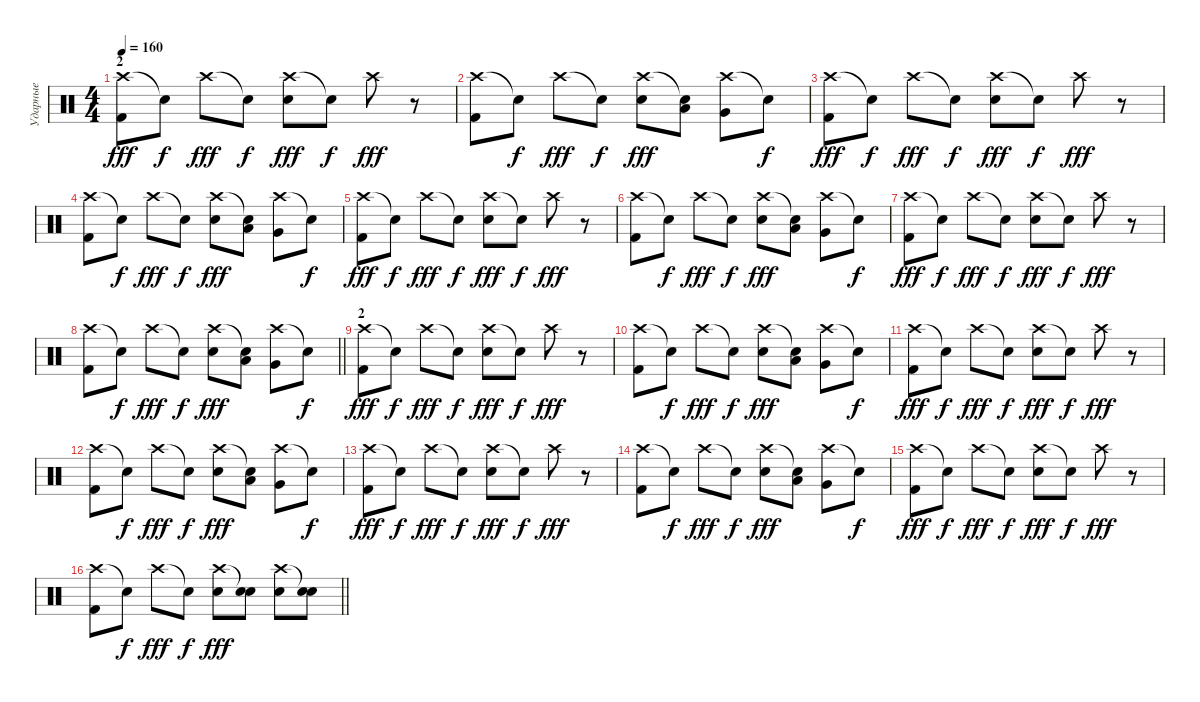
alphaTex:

\track ("Ударные" "Ударные") {instrument percussion}
\staff {score}
\articulation defaults
\ts (4 4)
\section ("" "2")
\tempo 160
\clef neutral
\ks c
("Crash high (hit)" "Kick (hit) 2").8{dy fff} "Snare (hit)"{t}.8{dy f} "Crash high (hit)".8{dy fff} "Snare (hit)"{t}.8{dy f} ("Crash high (hit)" "Electric Snare (hit)").8{dy fff} "Snare (hit)"{t}.8{dy f} "Crash high (hit)".8{dy fff} r.8 |
("Crash high (hit)" "Kick (hit) 2").8 "Snare (hit)"{t}.8{dy f} "Crash high (hit)".8{dy fff} "Snare (hit)"{t}.8{dy f} ("Crash high (hit)" "Electric Snare (hit)").8{dy fff} ("Snare (hit)"{t} "Low Tom (hit)").8 ("Crash high (hit)" "Very Low Tom (hit)").8 "Snare (hit)"{t}.8{dy f} |
("Crash high (hit)" "Kick (hit) 2").8{dy fff} "Snare (hit)"{t}.8{dy f} "Crash high (hit)".8{dy fff} "Snare (hit)"{t}.8{dy f} ("Crash high (hit)" "Electric Snare (hit)").8{dy fff} "Snare (hit)"{t}.8{dy f} "Crash high (hit)".8{dy fff} r.8 |
("Crash high (hit)" "Kick (hit) 2").8 "Snare (hit)"{t}.8{dy f} "Crash high (hit)".8{dy fff} "Snare (hit)"{t}.8{dy f} ("Crash high (hit)" "Electric Snare (hit)").8{dy fff} ("Snare (hit)"{t} "Low Tom (hit)").8 ("Crash high (hit)" "Very Low Tom (hit)").8 "Snare (hit)"{t}.8{dy f} |
("Crash high (hit)" "Kick (hit) 2").8{dy fff} "Snare (hit)"{t}.8{dy f} "Crash high (hit)".8{dy fff} "Snare (hit)"{t}.8{dy f} ("Crash high (hit)" "Electric Snare (hit)").8{dy fff} "Snare (hit)"{t}.8{dy f} "Crash high (hit)".8{dy fff} r.8 |
("Crash high (hit)" "Kick (hit) 2").8 "Snare (hit)"{t}.8{dy f} "Crash high (hit)".8{dy fff} "Snare (hit)"{t}.8{dy f} ("Crash high (hit)" "Electric Snare (hit)").8{dy fff} ("Snare (hit)"{t} "Low Tom (hit)").8 ("Crash high (hit)" "Very Low Tom (hit)").8 "Snare (hit)"{t}.8{dy f} |
("Crash high (hit)" "Kick (hit) 2").8{dy fff} "Snare (hit)"{t}.8{dy f} "Crash high (hit)".8{dy fff} "Snare (hit)"{t}.8{dy f} ("Crash high (hit)" "Electric Snare (hit)").8{dy fff} "Snare (hit)"{t}.8{dy f} "Crash high (hit)".8{dy fff} r.8 |
\barLineRight lightlight
("Crash high (hit)" "Kick (hit) 2").8 "Snare (hit)"{t}.8{dy f} "Crash high (hit)".8{dy fff} "Snare (hit)"{t}.8{dy f} ("Crash high (hit)" "Electric Snare (hit)").8{dy fff} ("Snare (hit)"{t} "Low Tom (hit)").8 ("Crash high (hit)" "Very Low Tom (hit)").8 "Snare (hit)"{t}.8{dy f} |
\section ("" "2")
("Crash high (hit)" "Kick (hit) 2").8{dy fff} "Snare (hit)"{t}.8{dy f} "Crash high (hit)".8{dy fff} "Snare (hit)"{t}.8{dy f} ("Crash high (hit)" "Electric Snare (hit)").8{dy fff} "Snare (hit)"{t}.8{dy f} "Crash high (hit)".8{dy fff} r.8 |
("Crash high (hit)" "Kick (hit) 2").8 "Snare (hit)"{t}.8{dy f} "Crash high (hit)".8{dy fff} "Snare (hit)"{t}.8{dy f} ("Crash high (hit)" "Electric Snare (hit)").8{dy fff} ("Snare (hit)"{t} "Low Tom (hit)").8 ("Crash high (hit)" "Very Low Tom (hit)").8 "Snare (hit)"{t}.8{dy f} |
("Crash high (hit)" "Kick (hit) 2").8{dy fff} "Snare (hit)"{t}.8{dy f} "Crash high (hit)".8{dy fff} "Snare (hit)"{t}.8{dy f} ("Crash high (hit)" "Electric Snare (hit)").8{dy fff} "Snare (hit)"{t}.8{dy f} "Crash high (hit)".8{dy fff} r.8 |
("Crash high (hit)" "Kick (hit) 2").8 "Snare (hit)"{t}.8{dy f} "Crash high (hit)".8{dy fff} "Snare (hit)"{t}.8{dy f} ("Crash high (hit)" "Electric Snare (hit)").8{dy fff} ("Snare (hit)"{t} "Low Tom (hit)").8 ("Crash high (hit)" "Very Low Tom (hit)").8 "Snare (hit)"{t}.8{dy f} |
("Crash high (hit)" "Kick (hit) 2").8{dy fff} "Snare (hit)"{t}.8{dy f} "Crash high (hit)".8{dy fff} "Snare (hit)"{t}.8{dy f} ("Crash high (hit)" "Electric Snare (hit)").8{dy fff} "Snare (hit)"{t}.8{dy f} "Crash high (hit)".8{dy fff} r.8 |
("Crash high (hit)" "Kick (hit) 2").8 "Snare (hit)"{t}.8{dy f} "Crash high (hit)".8{dy fff} "Snare (hit)"{t}.8{dy f} ("Crash high (hit)" "Electric Snare (hit)").8{dy fff} ("Snare (hit)"{t} "Low Tom (hit)").8 ("Crash high (hit)" "Very Low Tom (hit)").8 "Snare (hit)"{t}.8{dy f} |
("Crash high (hit)" "Kick (hit) 2").8{dy fff} "Snare (hit)"{t}.8{dy f} "Crash high (hit)".8{dy fff} "Snare (hit)"{t}.8{dy f} ("Crash high (hit)" "Electric Snare (hit)").8{dy fff} "Snare (hit)"{t}.8{dy f} "Crash high (hit)".8{dy fff} r.8 |
\barLineRight lightlight
("Crash high (hit)" "Kick (hit) 2").8 "Snare (hit)"{t}.8{dy f} "Crash high (hit)".8{dy fff} "Snare (hit)"{t}.8{dy f} ("Crash high (hit)" "Electric Snare (hit)").8{dy fff} ("Snare (hit)"{t} "Electric Snare (hit)").8 ("Crash high (hit)" "Electric Snare (hit)").8 ("Snare (hit)"{t} "Electric Snare (hit)").8
